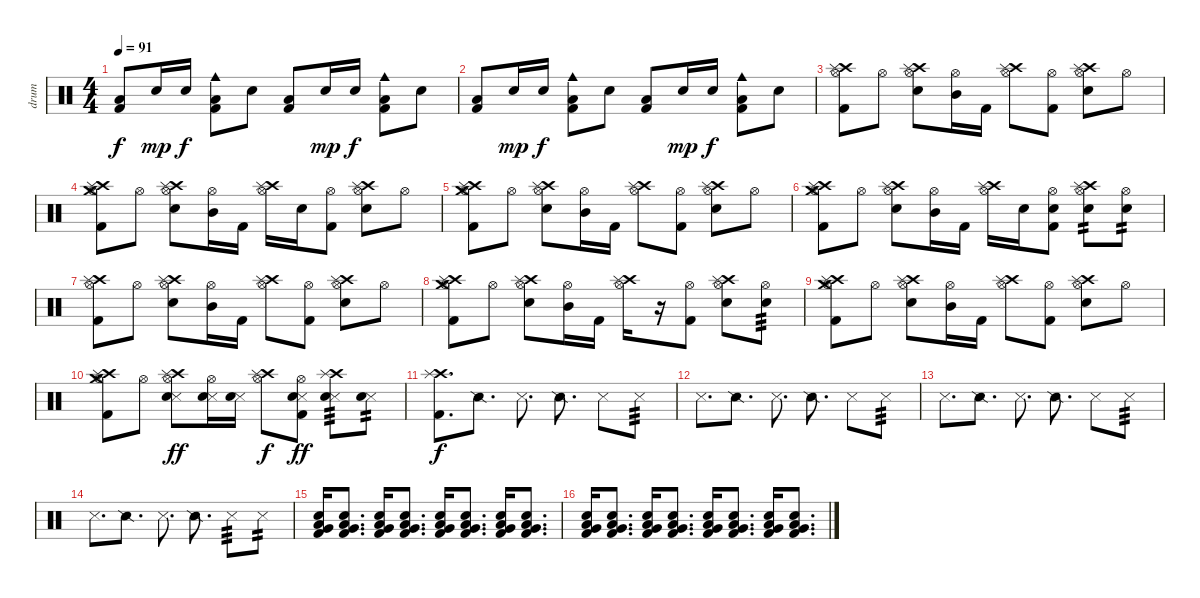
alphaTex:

\track ("drum" "drum") {instrument percussion}
\staff {score}
\articulation defaults
\ts (4 4)
\tempo 91
\clef neutral
\ks c
("Low Floor Tom (hit)" "Kick (hit) 2").8{dy f} "Electric Snare (hit)".16{dy mp} "Electric Snare (hit)".16{dy f} ("Cowbell medium (hit)" "Low Floor Tom (hit)" "Kick (hit) 2").8 "Electric Snare (hit)".8 ("Low Floor Tom (hit)" "Kick (hit) 2").8 "Electric Snare (hit)".16{dy mp} "Electric Snare (hit)".16{dy f} ("Cowbell medium (hit)" "Low Floor Tom (hit)" "Kick (hit) 2").8 "Electric Snare (hit)".8 |
("Low Floor Tom (hit)" "Kick (hit) 2").8 "Electric Snare (hit)".16{dy mp} "Electric Snare (hit)".16{dy f} ("Cowbell medium (hit)" "Low Floor Tom (hit)" "Kick (hit) 2").8 "Electric Snare (hit)".8 ("Low Floor Tom (hit)" "Kick (hit) 2").8 "Electric Snare (hit)".16{dy mp} "Electric Snare (hit)".16{dy f} ("Cowbell medium (hit)" "Low Floor Tom (hit)" "Kick (hit) 2").8 "Electric Snare (hit)".8 |
("Crash high (hit)" "Splash (hit)" "Kick (hit) 2" "Hi-Hat (open)").8 "Hi-Hat (open)".8 ("Crash high (hit)" "Splash (hit)" "Electric Snare (hit)" "Hi-Hat (open)").8 ("Mid Tom (hit)" "Hi-Hat (open)").16 "Kick (hit) 2".16 ("Crash high (hit)" "Splash (hit)" "Hi-Hat (open)").8 ("Kick (hit) 2" "Hi-Hat (open)").8 ("Crash high (hit)" "Splash (hit)" "Electric Snare (hit)" "Hi-Hat (open)").8 "Hi-Hat (open)".8 |
("Crash high (hit)" "Splash (hit)" "Crash medium (hit)" "Kick (hit) 2" "Hi-Hat (open)").8 "Hi-Hat (open)".8 ("Crash high (hit)" "Splash (hit)" "Electric Snare (hit)" "Hi-Hat (open)").8 ("Mid Tom (hit)" "Hi-Hat (open)").16 "Kick (hit) 2".16 ("Crash high (hit)" "Splash (hit)" "Hi-Hat (open)").16 "Electric Snare (hit)".16 ("Kick (hit) 2" "Hi-Hat (open)").8 ("Crash high (hit)" "Splash (hit)" "Electric Snare (hit)" "Hi-Hat (open)").8 "Hi-Hat (open)".8 |
("Crash high (hit)" "Splash (hit)" "Crash medium (hit)" "Kick (hit) 2" "Hi-Hat (open)").8 "Hi-Hat (open)".8 ("Crash high (hit)" "Splash (hit)" "Electric Snare (hit)" "Hi-Hat (open)").8 ("Mid Tom (hit)" "Hi-Hat (open)").16 "Kick (hit) 2".16 ("Crash high (hit)" "Splash (hit)" "Hi-Hat (open)").8 ("Kick (hit) 2" "Hi-Hat (open)").8 ("Crash high (hit)" "Splash (hit)" "Electric Snare (hit)" "Hi-Hat (open)").8 "Hi-Hat (open)".8 |
("Crash high (hit)" "Splash (hit)" "Crash medium (hit)" "Kick (hit) 2" "Hi-Hat (open)").8 "Hi-Hat (open)".8 ("Crash high (hit)" "Splash (hit)" "Electric Snare (hit)" "Hi-Hat (open)").8 ("Mid Tom (hit)" "Hi-Hat (open)").16 "Kick (hit) 2".16 ("Crash high (hit)" "Splash (hit)" "Hi-Hat (open)").16 "Electric Snare (hit)".16 ("Electric Snare (hit)" "Kick (hit) 2" "Hi-Hat (open)").8 ("Crash high (hit)" "Splash (hit)" "Electric Snare (hit)" "Hi-Hat (open)").8{tp 2} ("Electric Snare (hit)" "Hi-Hat (open)").8{tp 2} |
("Crash high (hit)" "Splash (hit)" "Kick (hit) 2" "Hi-Hat (open)").8 "Hi-Hat (open)".8 ("Crash high (hit)" "Splash (hit)" "Electric Snare (hit)" "Hi-Hat (open)").8 ("Mid Tom (hit)" "Hi-Hat (open)").16 "Kick (hit) 2".16 ("Crash high (hit)" "Splash (hit)" "Hi-Hat (open)").8 ("Kick (hit) 2" "Hi-Hat (open)").8 ("Crash high (hit)" "Splash (hit)" "Electric Snare (hit)" "Hi-Hat (open)").8 "Hi-Hat (open)".8 |
("Crash high (hit)" "Splash (hit)" "Crash medium (hit)" "Kick (hit) 2" "Hi-Hat (open)").8 "Hi-Hat (open)".8 ("Crash high (hit)" "Splash (hit)" "Electric Snare (hit)" "Hi-Hat (open)").8 ("Mid Tom (hit)" "Hi-Hat (open)").16 "Kick (hit) 2".16 ("Crash high (hit)" "Splash (hit)" "Hi-Hat (open)").16 r.16 ("Kick (hit) 2" "Hi-Hat (open)").8 ("Crash high (hit)" "Splash (hit)" "Electric Snare (hit)" "Hi-Hat (open)").8 ("Electric Snare (hit)" "Hi-Hat (open)").8{tp 3} |
("Crash high (hit)" "Splash (hit)" "Crash medium (hit)" "Kick (hit) 2" "Hi-Hat (open)").8 "Hi-Hat (open)".8 ("Crash high (hit)" "Splash (hit)" "Electric Snare (hit)" "Hi-Hat (open)").8 ("Mid Tom (hit)" "Hi-Hat (open)").16 "Kick (hit) 2".16 ("Crash high (hit)" "Splash (hit)" "Hi-Hat (open)").8 ("Kick (hit) 2" "Hi-Hat (open)").8 ("Crash high (hit)" "Splash (hit)" "Electric Snare (hit)" "Hi-Hat (open)").8 "Hi-Hat (open)".8 |
("Crash high (hit)" "Splash (hit)" "Crash medium (hit)" "Kick (hit) 2" "Hi-Hat (open)").8 "Hi-Hat (open)".8 ("Crash high (hit)" "Splash (hit)" "Snare (side stick) 3" "Electric Snare (hit)" "Hi-Hat (open)").8{dy ff} ("Snare (side stick) 3" "Electric Snare (hit)" "Hi-Hat (open)").16 ("Snare (side stick) 3" "Electric Snare (hit)").16 ("Crash high (hit)" "Splash (hit)" "Hi-Hat (open)").8{dy f} ("Snare (side stick) 3" "Electric Snare (hit)" "Kick (hit) 2" "Hi-Hat (open)").8{dy ff} ("Crash high (hit)" "Splash (hit)" "Snare (side stick) 3" "Electric Snare (hit)").8{tp 3} ("Snare (side stick) 3" "Electric Snare (hit)").8{tp 2} |
("Crash high (hit)" "Splash (hit)" "Kick (hit) 2").8{d dy f} "Snare (side stick) 2".8{d balance 0} "Snare (side stick) 3".8{d balance 16} "Snare (side stick) 2".8{d balance 0} "Snare (side stick) 3".8{balance 16} "Snare (side stick) 3".8{tp 3} |
"Snare (side stick) 3".8{d} "Snare (side stick) 2".8{d balance 0} "Snare (side stick) 3".8{d balance 16} "Snare (side stick) 2".8{d balance 0} "Snare (side stick) 3".8{balance 16} "Snare (side stick) 3".8{tp 3} |
"Snare (side stick) 3".8{d} "Snare (side stick) 2".8{d balance 0} "Snare (side stick) 3".8{d balance 16} "Snare (side stick) 2".8{d balance 0} "Snare (side stick) 3".8{balance 16} "Snare (side stick) 3".8{tp 3} |
"Snare (side stick) 3".8{d} "Snare (side stick) 2".8{d balance 0} "Snare (side stick) 3".8{d balance 16} "Snare (side stick) 2".8{d balance 0} "Snare (side stick) 3".8{tp 3 volume 16 balance 16} "Snare (side stick) 3".8{tp 2} |
("Very Low Tom (hit)" "Low Floor Tom (hit)" "Electric Snare (hit)" "Kick (hit) 2").16{volume 16 balance 8} ("Very Low Tom (hit)" "Low Floor Tom (hit)" "Electric Snare (hit)" "Kick (hit) 2").8{d} ("Very Low Tom (hit)" "Low Floor Tom (hit)" "Electric Snare (hit)" "Kick (hit) 2").16 ("Very Low Tom (hit)" "Low Floor Tom (hit)" "Electric Snare (hit)" "Kick (hit) 2").8{d} ("Very Low Tom (hit)" "Low Floor Tom (hit)" "Electric Snare (hit)" "Kick (hit) 2").16 ("Very Low Tom (hit)" "Low Floor Tom (hit)" "Electric Snare (hit)" "Kick (hit) 2").8{d} ("Very Low Tom (hit)" "Low Floor Tom (hit)" "Electric Snare (hit)" "Kick (hit) 2").16 ("Very Low Tom (hit)" "Low Floor Tom (hit)" "Electric Snare (hit)" "Kick (hit) 2").8{d} |
("Very Low Tom (hit)" "Low Floor Tom (hit)" "Electric Snare (hit)" "Kick (hit) 2").16 ("Very Low Tom (hit)" "Low Floor Tom (hit)" "Electric Snare (hit)" "Kick (hit) 2").8{d} ("Very Low Tom (hit)" "Low Floor Tom (hit)" "Electric Snare (hit)" "Kick (hit) 2").16 ("Very Low Tom (hit)" "Low Floor Tom (hit)" "Electric Snare (hit)" "Kick (hit) 2").8{d} ("Very Low Tom (hit)" "Low Floor Tom (hit)" "Electric Snare (hit)" "Kick (hit) 2").16 ("Very Low Tom (hit)" "Low Floor Tom (hit)" "Electric Snare (hit)" "Kick (hit) 2").8{d} ("Very Low Tom (hit)" "Low Floor Tom (hit)" "Electric Snare (hit)" "Kick (hit) 2").16 ("Very Low Tom (hit)" "Low Floor Tom (hit)" "Electric Snare (hit)" "Kick (hit) 2").8{d}
